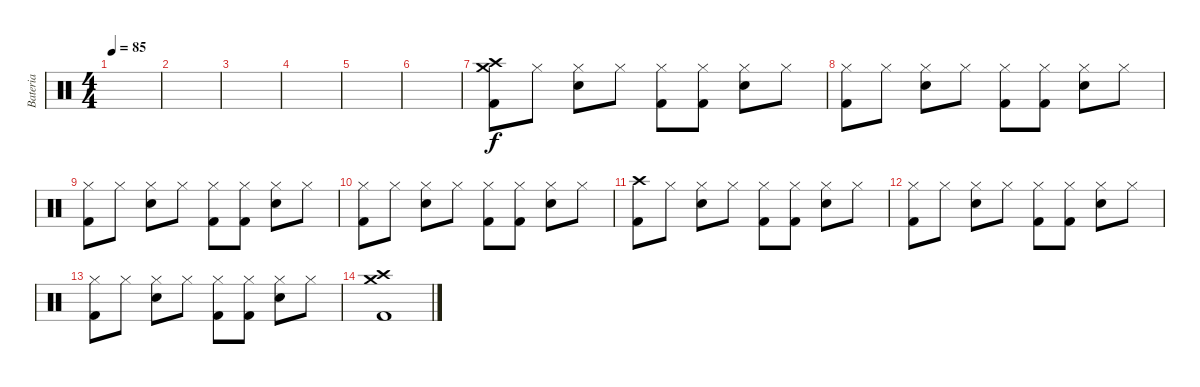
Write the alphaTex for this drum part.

\track ("Bateria" "Bateria") {instrument percussion}
\staff {score}
\articulation defaults
\ts (4 4)
\tempo 85
\clef neutral
\ks c
|
|
|
|
|
|
("Crash high (hit)" "Crash medium (hit)" "Kick (hit) 2").8 "Hi-Hat (closed)".8 ("Hi-Hat (closed)" "Electric Snare (hit)").8 "Hi-Hat (closed)".8 ("Hi-Hat (closed)" "Kick (hit) 2").8 ("Hi-Hat (closed)" "Kick (hit) 2").8 ("Hi-Hat (closed)" "Electric Snare (hit)").8 "Hi-Hat (closed)".8 |
("Hi-Hat (closed)" "Kick (hit) 2").8 "Hi-Hat (closed)".8 ("Hi-Hat (closed)" "Electric Snare (hit)").8 "Hi-Hat (closed)".8 ("Hi-Hat (closed)" "Kick (hit) 2").8 ("Hi-Hat (closed)" "Kick (hit) 2").8 ("Hi-Hat (closed)" "Electric Snare (hit)").8 "Hi-Hat (closed)".8 |
("Hi-Hat (closed)" "Kick (hit) 2").8 "Hi-Hat (closed)".8 ("Hi-Hat (closed)" "Electric Snare (hit)").8 "Hi-Hat (closed)".8 ("Hi-Hat (closed)" "Kick (hit) 2").8 ("Hi-Hat (closed)" "Kick (hit) 2").8 ("Hi-Hat (closed)" "Electric Snare (hit)").8 "Hi-Hat (closed)".8 |
("Hi-Hat (closed)" "Kick (hit) 2").8 "Hi-Hat (closed)".8 ("Hi-Hat (closed)" "Electric Snare (hit)").8 "Hi-Hat (closed)".8 ("Hi-Hat (closed)" "Kick (hit) 2").8 ("Hi-Hat (closed)" "Kick (hit) 2").8 ("Hi-Hat (closed)" "Electric Snare (hit)").8 "Hi-Hat (closed)".8 |
("Crash high (hit)" "Kick (hit) 2").8 "Hi-Hat (closed)".8 ("Hi-Hat (closed)" "Electric Snare (hit)").8 "Hi-Hat (closed)".8 ("Hi-Hat (closed)" "Kick (hit) 2").8 ("Hi-Hat (closed)" "Kick (hit) 2").8 ("Hi-Hat (closed)" "Electric Snare (hit)").8 "Hi-Hat (closed)".8 |
("Hi-Hat (closed)" "Kick (hit) 2").8 "Hi-Hat (closed)".8 ("Hi-Hat (closed)" "Electric Snare (hit)").8 "Hi-Hat (closed)".8 ("Hi-Hat (closed)" "Kick (hit) 2").8 ("Hi-Hat (closed)" "Kick (hit) 2").8 ("Hi-Hat (closed)" "Electric Snare (hit)").8 "Hi-Hat (closed)".8 |
("Hi-Hat (closed)" "Kick (hit) 2").8 "Hi-Hat (closed)".8 ("Hi-Hat (closed)" "Electric Snare (hit)").8 "Hi-Hat (closed)".8 ("Hi-Hat (closed)" "Kick (hit) 2").8 ("Hi-Hat (closed)" "Kick (hit) 2").8 ("Hi-Hat (closed)" "Electric Snare (hit)").8 "Hi-Hat (closed)".8 |
("Crash high (hit)" "Crash medium (hit)" "Kick (hit) 2").1
